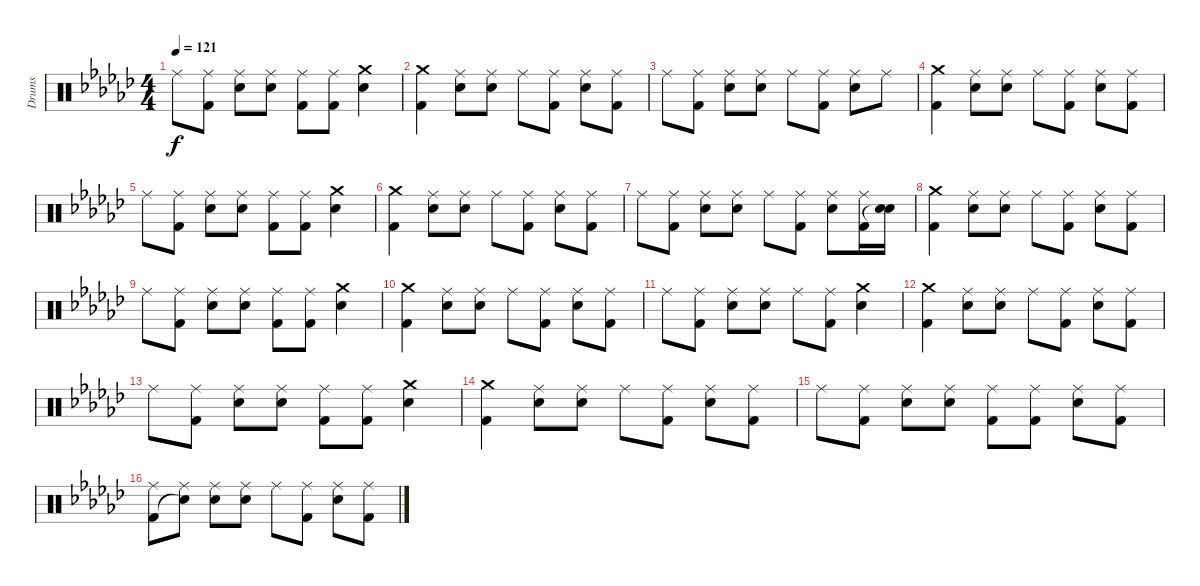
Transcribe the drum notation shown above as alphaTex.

\track ("Drums" "Drums") {instrument percussion}
\staff {score}
\articulation defaults
\ts (4 4)
\tempo 121
\clef neutral
\ks ebminor "Ride (middle)".8{dy f}
("Ride (middle)" "Kick (hit) 2").8 ("Ride (middle)" "Electric Snare (hit)").8 ("Ride (middle)" "Electric Snare (hit)").8 ("Ride (middle)" "Kick (hit) 2").8 ("Ride (middle)" "Kick (hit) 2").8 ("Crash medium (hit)" "Electric Snare (hit)").4 |
("Crash medium (hit)" "Kick (hit) 2").4 ("Ride (middle)" "Electric Snare (hit)").8 ("Ride (middle)" "Electric Snare (hit)").8 "Ride (middle)".8 ("Ride (middle)" "Kick (hit) 2").8 ("Ride (middle)" "Electric Snare (hit)").8 ("Ride (middle)" "Kick (hit) 2").8 |
"Ride (middle)".8 ("Ride (middle)" "Kick (hit) 2").8 ("Ride (middle)" "Electric Snare (hit)").8 ("Ride (middle)" "Electric Snare (hit)").8 "Ride (middle)".8 ("Ride (middle)" "Kick (hit) 2").8 ("Ride (middle)" "Electric Snare (hit)").8 "Ride (middle)".8 |
("Crash medium (hit)" "Kick (hit) 2").4 ("Ride (middle)" "Electric Snare (hit)").8 ("Ride (middle)" "Electric Snare (hit)").8 "Ride (middle)".8 ("Ride (middle)" "Kick (hit) 2").8 ("Ride (middle)" "Electric Snare (hit)").8 ("Ride (middle)" "Kick (hit) 2").8 |
"Ride (middle)".8 ("Ride (middle)" "Kick (hit) 2").8 ("Ride (middle)" "Electric Snare (hit)").8 ("Ride (middle)" "Electric Snare (hit)").8 ("Ride (middle)" "Kick (hit) 2").8 ("Ride (middle)" "Kick (hit) 2").8 ("Crash medium (hit)" "Electric Snare (hit)").4 |
("Crash medium (hit)" "Kick (hit) 2").4 ("Ride (middle)" "Electric Snare (hit)").8 ("Ride (middle)" "Electric Snare (hit)").8 "Ride (middle)".8 ("Ride (middle)" "Kick (hit) 2").8 ("Ride (middle)" "Electric Snare (hit)").8 ("Ride (middle)" "Kick (hit) 2").8 |
"Ride (middle)".8 ("Ride (middle)" "Kick (hit) 2").8 ("Ride (middle)" "Electric Snare (hit)").8 ("Ride (middle)" "Electric Snare (hit)").8 "Ride (middle)".8 ("Ride (middle)" "Kick (hit) 2").8 ("Ride (middle)" "Electric Snare (hit)").8 ("Ride (middle)" "Kick (hit) 2").16 ("Electric Snare (hit)" "Snare (hit)"{t}).16 |
("Crash medium (hit)" "Kick (hit) 2").4 ("Ride (middle)" "Electric Snare (hit)").8 ("Ride (middle)" "Electric Snare (hit)").8 "Ride (middle)".8 ("Ride (middle)" "Kick (hit) 2").8 ("Ride (middle)" "Electric Snare (hit)").8 ("Ride (middle)" "Kick (hit) 2").8 |
"Ride (middle)".8 ("Ride (middle)" "Kick (hit) 2").8 ("Ride (middle)" "Electric Snare (hit)").8 ("Ride (middle)" "Electric Snare (hit)").8 ("Ride (middle)" "Kick (hit) 2").8 ("Ride (middle)" "Kick (hit) 2").8 ("Crash medium (hit)" "Electric Snare (hit)").4 |
("Crash medium (hit)" "Kick (hit) 2").4 ("Ride (middle)" "Electric Snare (hit)").8 ("Ride (middle)" "Electric Snare (hit)").8 "Ride (middle)".8 ("Ride (middle)" "Kick (hit) 2").8 ("Ride (middle)" "Electric Snare (hit)").8 ("Ride (middle)" "Kick (hit) 2").8 |
"Ride (middle)".8 ("Ride (middle)" "Kick (hit) 2").8 ("Ride (middle)" "Electric Snare (hit)").8 ("Ride (middle)" "Electric Snare (hit)").8 "Ride (middle)".8 ("Ride (middle)" "Kick (hit) 2").8 ("Crash medium (hit)" "Electric Snare (hit)").4 |
("Crash medium (hit)" "Kick (hit) 2").4 ("Ride (middle)" "Electric Snare (hit)").8 ("Ride (middle)" "Electric Snare (hit)").8 "Ride (middle)".8 ("Ride (middle)" "Kick (hit) 2").8 ("Ride (middle)" "Electric Snare (hit)").8 ("Ride (middle)" "Kick (hit) 2").8 |
"Ride (middle)".8 ("Ride (middle)" "Kick (hit) 2").8 ("Ride (middle)" "Electric Snare (hit)").8 ("Ride (middle)" "Electric Snare (hit)").8 ("Ride (middle)" "Kick (hit) 2").8 ("Ride (middle)" "Kick (hit) 2").8 ("Crash medium (hit)" "Electric Snare (hit)").4 |
("Crash medium (hit)" "Kick (hit) 2").4 ("Ride (middle)" "Electric Snare (hit)").8 ("Ride (middle)" "Electric Snare (hit)").8 "Ride (middle)".8 ("Ride (middle)" "Kick (hit) 2").8 ("Ride (middle)" "Electric Snare (hit)").8 ("Ride (middle)" "Kick (hit) 2").8 |
"Ride (middle)".8 ("Ride (middle)" "Kick (hit) 2").8 ("Ride (middle)" "Electric Snare (hit)").8 ("Ride (middle)" "Electric Snare (hit)").8 ("Ride (middle)" "Kick (hit) 2").8 ("Ride (middle)" "Kick (hit) 2").8 ("Ride (middle)" "Electric Snare (hit)").8 ("Ride (middle)" "Kick (hit) 2").8 |
("Ride (middle)" "Kick (hit) 2").8 ("Ride (middle)" "Snare (hit)"{t}).8 ("Ride (middle)" "Electric Snare (hit)").8 ("Ride (middle)" "Electric Snare (hit)").8 "Ride (middle)".8 ("Ride (middle)" "Kick (hit) 2").8 ("Ride (middle)" "Electric Snare (hit)").8 ("Ride (middle)" "Kick (hit) 2").8
